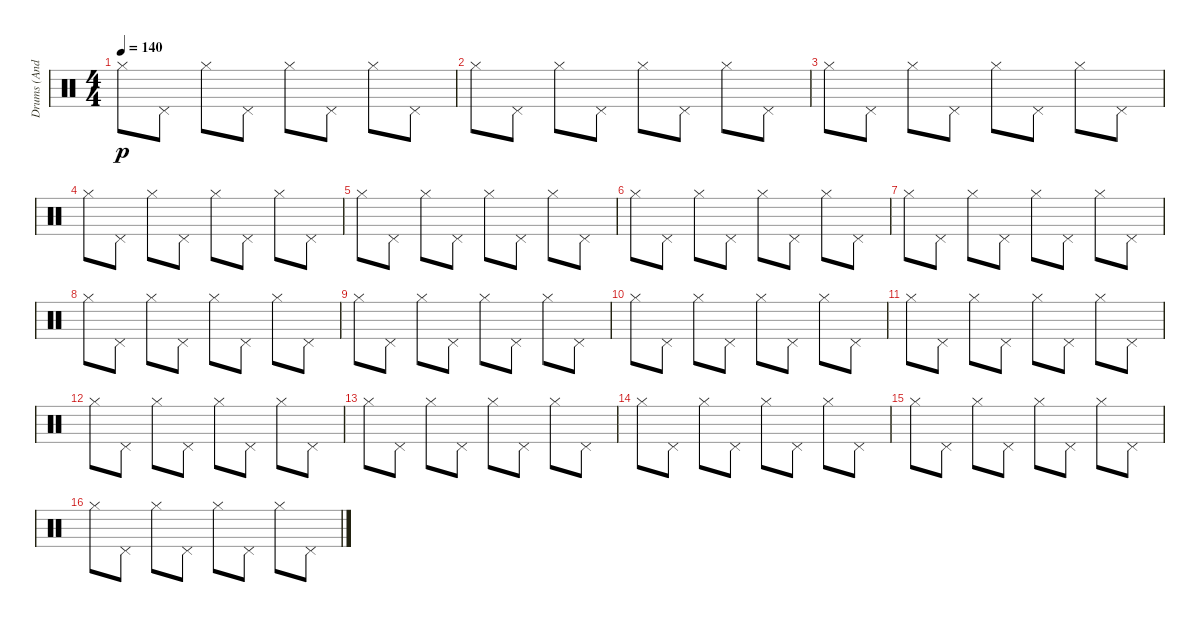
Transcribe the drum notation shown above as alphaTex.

\track ("Drums (Andy C)" "Drums (And") {instrument percussion}
\staff {score}
\articulation defaults
\ts (4 4)
\tempo 140
\clef neutral
\ks c "Hi-Hat (closed)".8{dy p} "Pedal Hi-Hat (hit)".8 "Hi-Hat (closed)".8 "Pedal Hi-Hat (hit)".8 "Hi-Hat (closed)".8 "Pedal Hi-Hat (hit)".8 "Hi-Hat (closed)".8 "Pedal Hi-Hat (hit)".8
|
"Hi-Hat (closed)".8 "Pedal Hi-Hat (hit)".8 "Hi-Hat (closed)".8 "Pedal Hi-Hat (hit)".8 "Hi-Hat (closed)".8 "Pedal Hi-Hat (hit)".8 "Hi-Hat (closed)".8 "Pedal Hi-Hat (hit)".8 |
"Hi-Hat (closed)".8 "Pedal Hi-Hat (hit)".8 "Hi-Hat (closed)".8 "Pedal Hi-Hat (hit)".8 "Hi-Hat (closed)".8 "Pedal Hi-Hat (hit)".8 "Hi-Hat (closed)".8 "Pedal Hi-Hat (hit)".8 |
"Hi-Hat (closed)".8 "Pedal Hi-Hat (hit)".8 "Hi-Hat (closed)".8 "Pedal Hi-Hat (hit)".8 "Hi-Hat (closed)".8 "Pedal Hi-Hat (hit)".8 "Hi-Hat (closed)".8 "Pedal Hi-Hat (hit)".8 |
"Hi-Hat (closed)".8 "Pedal Hi-Hat (hit)".8 "Hi-Hat (closed)".8 "Pedal Hi-Hat (hit)".8 "Hi-Hat (closed)".8 "Pedal Hi-Hat (hit)".8 "Hi-Hat (closed)".8 "Pedal Hi-Hat (hit)".8 |
"Hi-Hat (closed)".8 "Pedal Hi-Hat (hit)".8 "Hi-Hat (closed)".8 "Pedal Hi-Hat (hit)".8 "Hi-Hat (closed)".8 "Pedal Hi-Hat (hit)".8 "Hi-Hat (closed)".8 "Pedal Hi-Hat (hit)".8 |
"Hi-Hat (closed)".8 "Pedal Hi-Hat (hit)".8 "Hi-Hat (closed)".8 "Pedal Hi-Hat (hit)".8 "Hi-Hat (closed)".8 "Pedal Hi-Hat (hit)".8 "Hi-Hat (closed)".8 "Pedal Hi-Hat (hit)".8 |
"Hi-Hat (closed)".8 "Pedal Hi-Hat (hit)".8 "Hi-Hat (closed)".8 "Pedal Hi-Hat (hit)".8 "Hi-Hat (closed)".8 "Pedal Hi-Hat (hit)".8 "Hi-Hat (closed)".8 "Pedal Hi-Hat (hit)".8 |
"Hi-Hat (closed)".8 "Pedal Hi-Hat (hit)".8 "Hi-Hat (closed)".8 "Pedal Hi-Hat (hit)".8 "Hi-Hat (closed)".8 "Pedal Hi-Hat (hit)".8 "Hi-Hat (closed)".8 "Pedal Hi-Hat (hit)".8 |
"Hi-Hat (closed)".8 "Pedal Hi-Hat (hit)".8 "Hi-Hat (closed)".8 "Pedal Hi-Hat (hit)".8 "Hi-Hat (closed)".8 "Pedal Hi-Hat (hit)".8 "Hi-Hat (closed)".8 "Pedal Hi-Hat (hit)".8 |
"Hi-Hat (closed)".8 "Pedal Hi-Hat (hit)".8 "Hi-Hat (closed)".8 "Pedal Hi-Hat (hit)".8 "Hi-Hat (closed)".8 "Pedal Hi-Hat (hit)".8 "Hi-Hat (closed)".8 "Pedal Hi-Hat (hit)".8 |
"Hi-Hat (closed)".8 "Pedal Hi-Hat (hit)".8 "Hi-Hat (closed)".8 "Pedal Hi-Hat (hit)".8 "Hi-Hat (closed)".8 "Pedal Hi-Hat (hit)".8 "Hi-Hat (closed)".8 "Pedal Hi-Hat (hit)".8 |
"Hi-Hat (closed)".8 "Pedal Hi-Hat (hit)".8 "Hi-Hat (closed)".8 "Pedal Hi-Hat (hit)".8 "Hi-Hat (closed)".8 "Pedal Hi-Hat (hit)".8 "Hi-Hat (closed)".8 "Pedal Hi-Hat (hit)".8 |
"Hi-Hat (closed)".8 "Pedal Hi-Hat (hit)".8 "Hi-Hat (closed)".8 "Pedal Hi-Hat (hit)".8 "Hi-Hat (closed)".8 "Pedal Hi-Hat (hit)".8 "Hi-Hat (closed)".8 "Pedal Hi-Hat (hit)".8 |
"Hi-Hat (closed)".8 "Pedal Hi-Hat (hit)".8 "Hi-Hat (closed)".8 "Pedal Hi-Hat (hit)".8 "Hi-Hat (closed)".8 "Pedal Hi-Hat (hit)".8 "Hi-Hat (closed)".8 "Pedal Hi-Hat (hit)".8 |
"Hi-Hat (closed)".8 "Pedal Hi-Hat (hit)".8 "Hi-Hat (closed)".8 "Pedal Hi-Hat (hit)".8 "Hi-Hat (closed)".8 "Pedal Hi-Hat (hit)".8 "Hi-Hat (closed)".8 "Pedal Hi-Hat (hit)".8
